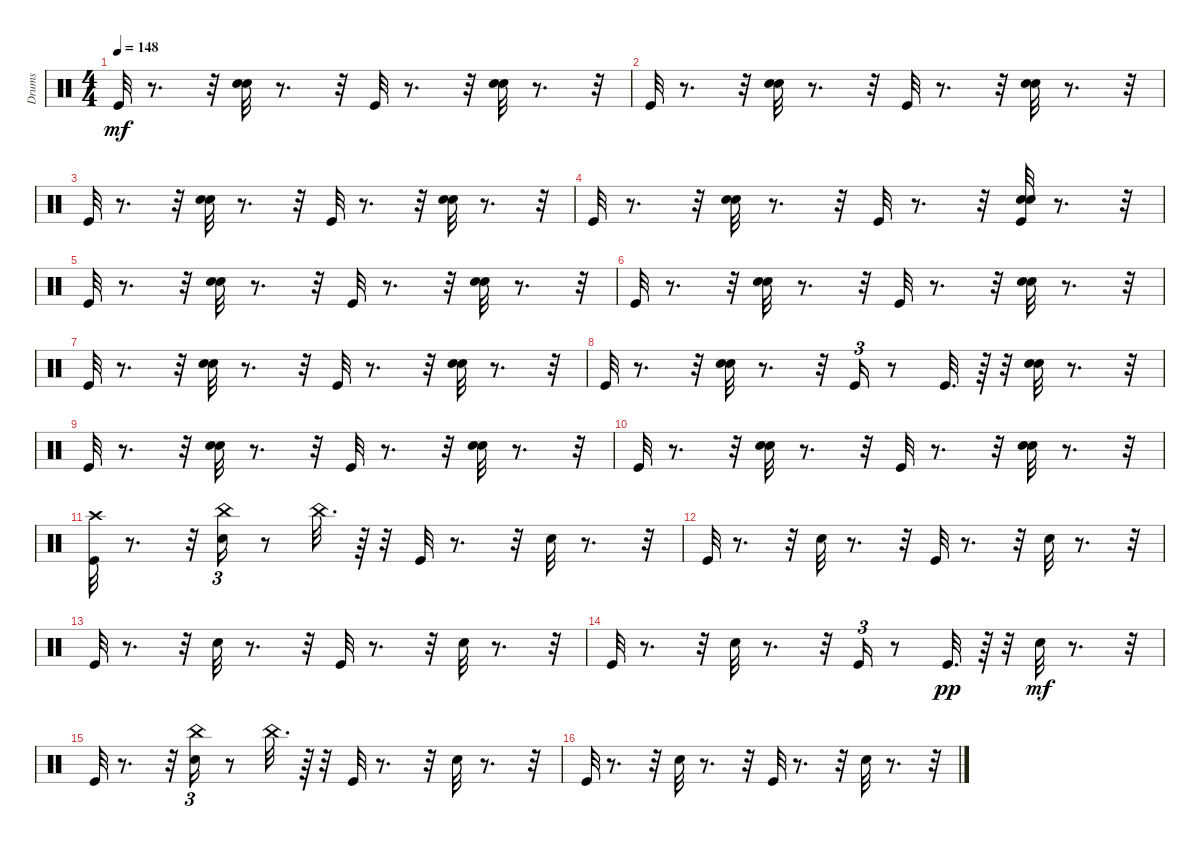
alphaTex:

\track ("Drums" "Drums") {instrument percussion}
\staff {score}
\articulation defaults
\ts (4 4)
\tempo 148
\clef neutral
\ks c "Kick (hit)".32{dy mf}
r.8{d} r.32 ("Hand Clap (hit)" "Electric Snare (hit)").32 r.8{d} r.32 "Kick (hit)".32 r.8{d} r.32 ("Hand Clap (hit)" "Electric Snare (hit)").32 r.8{d} r.32 |
"Kick (hit)".32 r.8{d} r.32 ("Hand Clap (hit)" "Electric Snare (hit)").32 r.8{d} r.32 "Kick (hit)".32 r.8{d} r.32 ("Hand Clap (hit)" "Electric Snare (hit)").32 r.8{d} r.32 |
"Kick (hit)".32 r.8{d} r.32 ("Hand Clap (hit)" "Electric Snare (hit)").32 r.8{d} r.32 "Kick (hit)".32 r.8{d} r.32 ("Hand Clap (hit)" "Electric Snare (hit)").32 r.8{d} r.32 |
"Kick (hit)".32 r.8{d} r.32 ("Hand Clap (hit)" "Electric Snare (hit)").32 r.8{d} r.32 "Kick (hit)".32 r.8{d} r.32 ("Kick (hit)" "Hand Clap (hit)" "Electric Snare (hit)").32 r.8{d} r.32 |
"Kick (hit)".32 r.8{d} r.32 ("Hand Clap (hit)" "Electric Snare (hit)").32 r.8{d} r.32 "Kick (hit)".32 r.8{d} r.32 ("Hand Clap (hit)" "Electric Snare (hit)").32 r.8{d} r.32 |
"Kick (hit)".32 r.8{d} r.32 ("Hand Clap (hit)" "Electric Snare (hit)").32 r.8{d} r.32 "Kick (hit)".32 r.8{d} r.32 ("Hand Clap (hit)" "Electric Snare (hit)").32 r.8{d} r.32 |
"Kick (hit)".32 r.8{d} r.32 ("Hand Clap (hit)" "Electric Snare (hit)").32 r.8{d} r.32 "Kick (hit)".32 r.8{d} r.32 ("Hand Clap (hit)" "Electric Snare (hit)").32 r.8{d} r.32 |
"Kick (hit)".32 r.8{d} r.32 ("Hand Clap (hit)" "Electric Snare (hit)").32 r.8{d} r.32 "Kick (hit)".16{tu (3 2)} r.8 "Kick (hit)".32{d} r.64 r.32 ("Hand Clap (hit)" "Electric Snare (hit)").32 r.8{d} r.32 |
"Kick (hit)".32 r.8{d} r.32 ("Hand Clap (hit)" "Electric Snare (hit)").32 r.8{d} r.32 "Kick (hit)".32 r.8{d} r.32 ("Hand Clap (hit)" "Electric Snare (hit)").32 r.8{d} r.32 |
"Kick (hit)".32 r.8{d} r.32 ("Hand Clap (hit)" "Electric Snare (hit)").32 r.8{d} r.32 "Kick (hit)".32 r.8{d} r.32 ("Hand Clap (hit)" "Electric Snare (hit)").32 r.8{d} r.32 |
("Crash high (hit)" "Kick (hit)").32 r.8{d} r.32 ("China (hit)" "Electric Snare (hit)").16{tu (3 2)} r.8 "China (hit)".32{d} r.64 r.32 "Kick (hit)".32 r.8{d} r.32 "Electric Snare (hit)".32 r.8{d} r.32 |
"Kick (hit)".32 r.8{d} r.32 "Electric Snare (hit)".32 r.8{d} r.32 "Kick (hit)".32 r.8{d} r.32 "Electric Snare (hit)".32 r.8{d} r.32 |
"Kick (hit)".32 r.8{d} r.32 "Electric Snare (hit)".32 r.8{d} r.32 "Kick (hit)".32 r.8{d} r.32 "Electric Snare (hit)".32 r.8{d} r.32 |
"Kick (hit)".32 r.8{d} r.32 "Electric Snare (hit)".32 r.8{d} r.32 "Kick (hit)".16{tu (3 2)} r.8 "Kick (hit)".32{d dy pp} r.64 r.32 "Electric Snare (hit)".32{dy mf} r.8{d} r.32 |
"Kick (hit)".32 r.8{d} r.32 ("China (hit)" "Electric Snare (hit)").16{tu (3 2)} r.8 "China (hit)".32{d} r.64 r.32 "Kick (hit)".32 r.8{d} r.32 "Electric Snare (hit)".32 r.8{d} r.32 |
"Kick (hit)".32 r.8{d} r.32 "Electric Snare (hit)".32 r.8{d} r.32 "Kick (hit)".32 r.8{d} r.32 "Electric Snare (hit)".32 r.8{d} r.32
